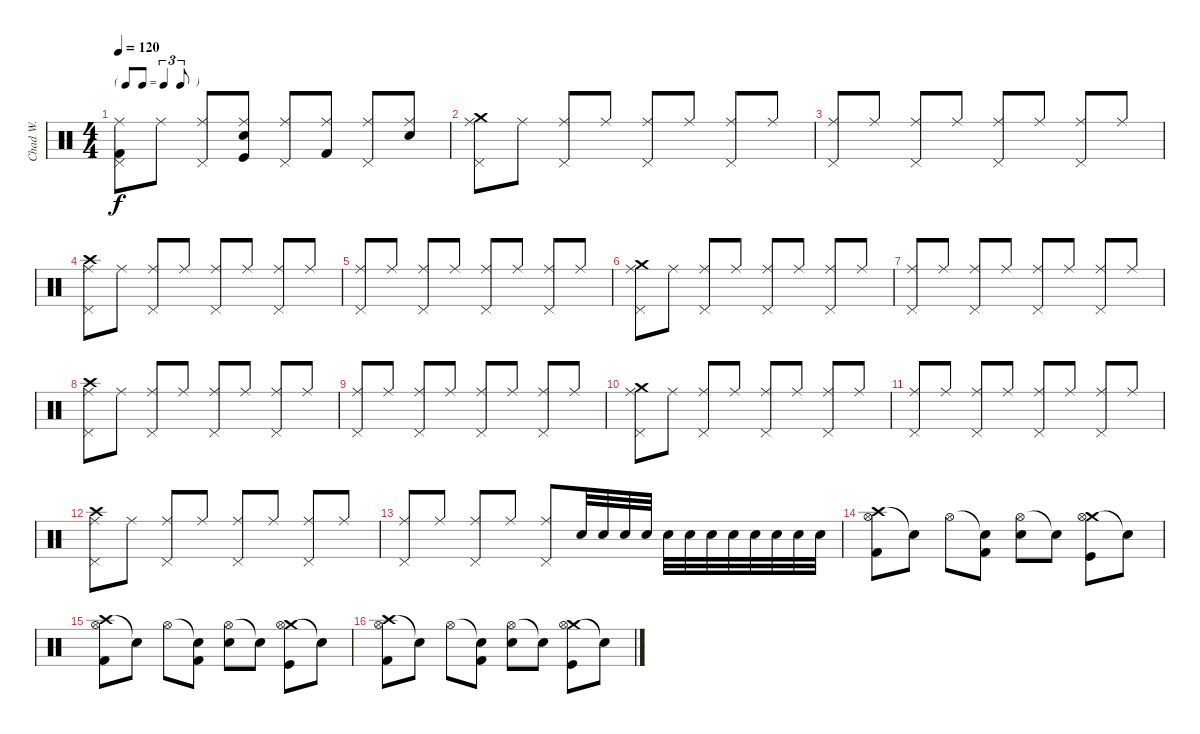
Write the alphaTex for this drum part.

\track ("Chad W." "Chad W.") {instrument percussion bank 177}
\staff {score}
\articulation defaults
\ts (4 4)
\tf triplet8th
\tempo 120
\clef neutral
\ks c
("Ride (middle)" "Pedal Hi-Hat (hit)" "Kick (hit) 2").8{dy f} "Ride (middle)".8 ("Ride (middle)" "Pedal Hi-Hat (hit)").8 ("Ride (middle)" "Electric Snare (hit)" "Kick (hit)").8 ("Ride (middle)" "Pedal Hi-Hat (hit)").8 ("Ride (middle)" "Kick (hit) 2").8 ("Ride (middle)" "Pedal Hi-Hat (hit)").8 ("Ride (middle)" "Electric Snare (hit)").8 |
("Crash medium (hit)" "Ride (middle)" "Pedal Hi-Hat (hit)").8 "Ride (middle)".8 ("Ride (middle)" "Pedal Hi-Hat (hit)").8 "Ride (middle)".8 ("Ride (middle)" "Pedal Hi-Hat (hit)").8 "Ride (middle)".8 ("Ride (middle)" "Pedal Hi-Hat (hit)").8 "Ride (middle)".8 |
("Ride (middle)" "Pedal Hi-Hat (hit)").8 "Ride (middle)".8 ("Ride (middle)" "Pedal Hi-Hat (hit)").8 "Ride (middle)".8 ("Ride (middle)" "Pedal Hi-Hat (hit)").8 "Ride (middle)".8 ("Ride (middle)" "Pedal Hi-Hat (hit)").8 "Ride (middle)".8 |
("Crash high (hit)" "Ride (middle)" "Pedal Hi-Hat (hit)").8 "Ride (middle)".8 ("Ride (middle)" "Pedal Hi-Hat (hit)").8 "Ride (middle)".8 ("Ride (middle)" "Pedal Hi-Hat (hit)").8 "Ride (middle)".8 ("Ride (middle)" "Pedal Hi-Hat (hit)").8 "Ride (middle)".8 |
("Ride (middle)" "Pedal Hi-Hat (hit)").8 "Ride (middle)".8 ("Ride (middle)" "Pedal Hi-Hat (hit)").8 "Ride (middle)".8 ("Ride (middle)" "Pedal Hi-Hat (hit)").8 "Ride (middle)".8 ("Ride (middle)" "Pedal Hi-Hat (hit)").8 "Ride (middle)".8 |
("Crash medium (hit)" "Ride (middle)" "Pedal Hi-Hat (hit)").8 "Ride (middle)".8 ("Ride (middle)" "Pedal Hi-Hat (hit)").8 "Ride (middle)".8 ("Ride (middle)" "Pedal Hi-Hat (hit)").8 "Ride (middle)".8 ("Ride (middle)" "Pedal Hi-Hat (hit)").8 "Ride (middle)".8 |
("Ride (middle)" "Pedal Hi-Hat (hit)").8 "Ride (middle)".8 ("Ride (middle)" "Pedal Hi-Hat (hit)").8 "Ride (middle)".8 ("Ride (middle)" "Pedal Hi-Hat (hit)").8 "Ride (middle)".8 ("Ride (middle)" "Pedal Hi-Hat (hit)").8 "Ride (middle)".8 |
("Crash high (hit)" "Ride (middle)" "Pedal Hi-Hat (hit)").8 "Ride (middle)".8 ("Ride (middle)" "Pedal Hi-Hat (hit)").8 "Ride (middle)".8 ("Ride (middle)" "Pedal Hi-Hat (hit)").8 "Ride (middle)".8 ("Ride (middle)" "Pedal Hi-Hat (hit)").8 "Ride (middle)".8 |
("Ride (middle)" "Pedal Hi-Hat (hit)").8 "Ride (middle)".8 ("Ride (middle)" "Pedal Hi-Hat (hit)").8 "Ride (middle)".8 ("Ride (middle)" "Pedal Hi-Hat (hit)").8 "Ride (middle)".8 ("Ride (middle)" "Pedal Hi-Hat (hit)").8 "Ride (middle)".8 |
("Crash medium (hit)" "Ride (middle)" "Pedal Hi-Hat (hit)").8 "Ride (middle)".8 ("Ride (middle)" "Pedal Hi-Hat (hit)").8 "Ride (middle)".8 ("Ride (middle)" "Pedal Hi-Hat (hit)").8 "Ride (middle)".8 ("Ride (middle)" "Pedal Hi-Hat (hit)").8 "Ride (middle)".8 |
("Ride (middle)" "Pedal Hi-Hat (hit)").8 "Ride (middle)".8 ("Ride (middle)" "Pedal Hi-Hat (hit)").8 "Ride (middle)".8 ("Ride (middle)" "Pedal Hi-Hat (hit)").8 "Ride (middle)".8 ("Ride (middle)" "Pedal Hi-Hat (hit)").8 "Ride (middle)".8 |
("Crash high (hit)" "Ride (middle)" "Pedal Hi-Hat (hit)").8 "Ride (middle)".8 ("Ride (middle)" "Pedal Hi-Hat (hit)").8 "Ride (middle)".8 ("Ride (middle)" "Pedal Hi-Hat (hit)").8 "Ride (middle)".8 ("Ride (middle)" "Pedal Hi-Hat (hit)").8 "Ride (middle)".8 |
("Ride (middle)" "Pedal Hi-Hat (hit)").8 "Ride (middle)".8 ("Ride (middle)" "Pedal Hi-Hat (hit)").8 "Ride (middle)".8 ("Ride (middle)" "Pedal Hi-Hat (hit)").8 "Electric Snare (hit)".32 "Electric Snare (hit)".32 "Electric Snare (hit)".32 "Electric Snare (hit)".32 "Electric Snare (hit)".32 "Electric Snare (hit)".32 "Electric Snare (hit)".32 "Electric Snare (hit)".32 "Electric Snare (hit)".32 "Electric Snare (hit)".32 "Electric Snare (hit)".32 "Electric Snare (hit)".32 |
("Crash high (hit)" "Hi-Hat (open)" "Kick (hit) 2").8 "Snare (hit)"{t}.8 "Hi-Hat (open)".8 ("Snare (hit)"{t} "Kick (hit) 2").8 ("Hi-Hat (open)" "Electric Snare (hit)").8 "Snare (hit)"{t}.8 ("Crash medium (hit)" "Hi-Hat (open)" "Kick (hit)").8 "Snare (hit)"{t}.8 |
("Crash high (hit)" "Hi-Hat (open)" "Kick (hit) 2").8 "Snare (hit)"{t}.8 "Hi-Hat (open)".8 ("Snare (hit)"{t} "Kick (hit) 2").8 ("Hi-Hat (open)" "Electric Snare (hit)").8 "Snare (hit)"{t}.8 ("Crash medium (hit)" "Hi-Hat (open)" "Kick (hit)").8 "Snare (hit)"{t}.8 |
("Crash high (hit)" "Hi-Hat (open)" "Kick (hit) 2").8 "Snare (hit)"{t}.8 "Hi-Hat (open)".8 ("Snare (hit)"{t} "Kick (hit) 2").8 ("Hi-Hat (open)" "Electric Snare (hit)").8 "Snare (hit)"{t}.8 ("Crash medium (hit)" "Hi-Hat (open)" "Kick (hit)").8 "Snare (hit)"{t}.8
